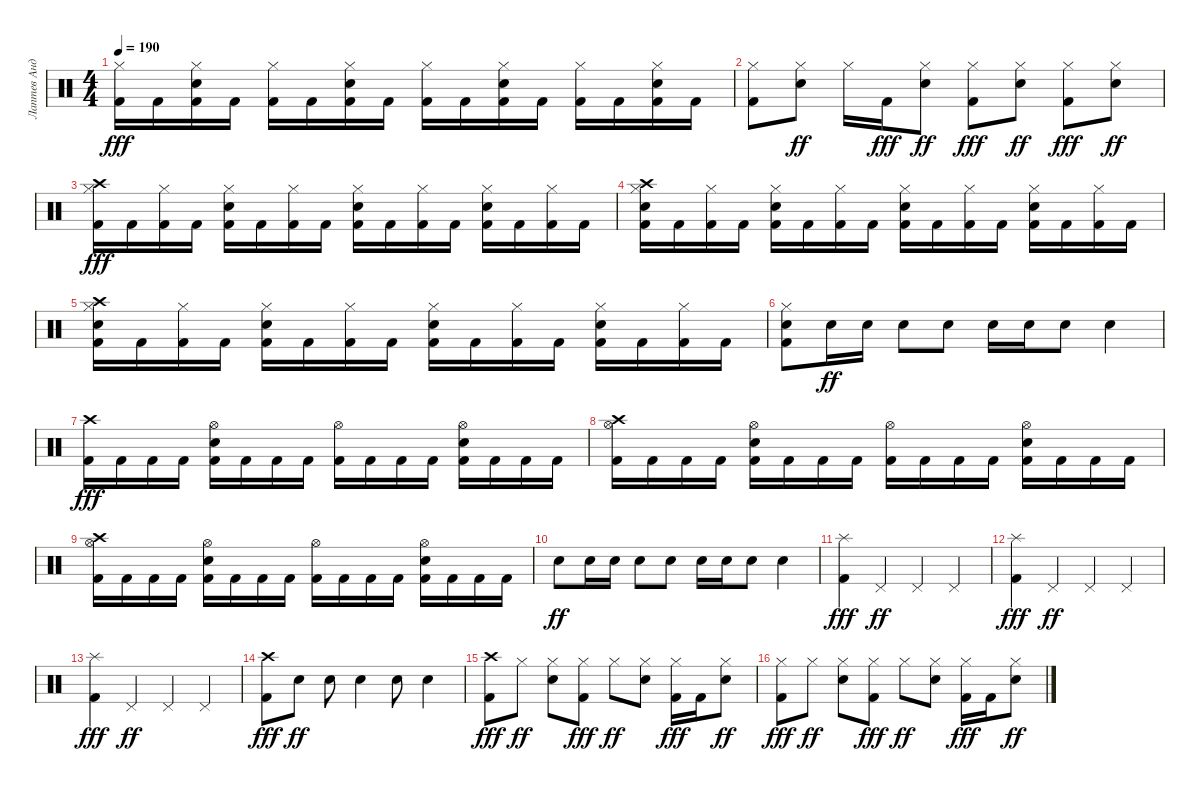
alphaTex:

\track ("Лаптев Андрей" "Лаптев Анд") {instrument percussion}
\staff {score}
\articulation defaults
\ts (4 4)
\tempo 190
\clef neutral
\ks c
("Hi-Hat (closed)" "Kick (hit) 2").16{dy fff} "Kick (hit) 2".16 ("Electric Snare (hit)" "Hi-Hat (closed)" "Kick (hit) 2").16 "Kick (hit) 2".16 ("Hi-Hat (closed)" "Kick (hit) 2").16 "Kick (hit) 2".16 ("Electric Snare (hit)" "Hi-Hat (closed)" "Kick (hit) 2").16 "Kick (hit) 2".16 ("Hi-Hat (closed)" "Kick (hit) 2").16 "Kick (hit) 2".16 ("Electric Snare (hit)" "Hi-Hat (closed)" "Kick (hit) 2").16 "Kick (hit) 2".16 ("Hi-Hat (closed)" "Kick (hit) 2").16 "Kick (hit) 2".16 ("Electric Snare (hit)" "Hi-Hat (closed)" "Kick (hit) 2").16 "Kick (hit) 2".16 |
("Hi-Hat (closed)" "Kick (hit) 2").8 ("Electric Snare (hit)" "Hi-Hat (closed)").8{dy ff} "Hi-Hat (closed)".16 "Kick (hit) 2".16{dy fff} ("Electric Snare (hit)" "Hi-Hat (closed)").8{dy ff} ("Hi-Hat (closed)" "Kick (hit) 2").8{dy fff} ("Electric Snare (hit)" "Hi-Hat (closed)").8{dy ff} ("Hi-Hat (closed)" "Kick (hit) 2").8{dy fff} ("Hi-Hat (closed)" "Electric Snare (hit)").8{dy ff} |
("Crash high (hit)" "Hi-Hat (closed)" "Kick (hit) 2").16{dy fff} "Kick (hit) 2".16 ("Hi-Hat (closed)" "Kick (hit) 2").16 "Kick (hit) 2".16 ("Electric Snare (hit)" "Hi-Hat (closed)" "Kick (hit) 2").16 "Kick (hit) 2".16 ("Hi-Hat (closed)" "Kick (hit) 2").16 "Kick (hit) 2".16 ("Electric Snare (hit)" "Hi-Hat (closed)" "Kick (hit) 2").16 "Kick (hit) 2".16 ("Hi-Hat (closed)" "Kick (hit) 2").16 "Kick (hit) 2".16 ("Electric Snare (hit)" "Hi-Hat (closed)" "Kick (hit) 2").16 "Kick (hit) 2".16 ("Hi-Hat (closed)" "Kick (hit) 2").16 "Kick (hit) 2".16 |
("Crash high (hit)" "Electric Snare (hit)" "Hi-Hat (closed)" "Kick (hit) 2").16 "Kick (hit) 2".16 ("Hi-Hat (closed)" "Kick (hit) 2").16 "Kick (hit) 2".16 ("Electric Snare (hit)" "Hi-Hat (closed)" "Kick (hit) 2").16 "Kick (hit) 2".16 ("Hi-Hat (closed)" "Kick (hit) 2").16 "Kick (hit) 2".16 ("Electric Snare (hit)" "Hi-Hat (closed)" "Kick (hit) 2").16 "Kick (hit) 2".16 ("Hi-Hat (closed)" "Kick (hit) 2").16 "Kick (hit) 2".16 ("Electric Snare (hit)" "Hi-Hat (closed)" "Kick (hit) 2").16 "Kick (hit) 2".16 ("Hi-Hat (closed)" "Kick (hit) 2").16 "Kick (hit) 2".16 |
("Crash high (hit)" "Hi-Hat (closed)" "Electric Snare (hit)" "Kick (hit) 2").16 "Kick (hit) 2".16 ("Hi-Hat (closed)" "Kick (hit) 2").16 "Kick (hit) 2".16 ("Electric Snare (hit)" "Hi-Hat (closed)" "Kick (hit) 2").16 "Kick (hit) 2".16 ("Hi-Hat (closed)" "Kick (hit) 2").16 "Kick (hit) 2".16 ("Electric Snare (hit)" "Hi-Hat (closed)" "Kick (hit) 2").16 "Kick (hit) 2".16 ("Hi-Hat (closed)" "Kick (hit) 2").16 "Kick (hit) 2".16 ("Electric Snare (hit)" "Hi-Hat (closed)" "Kick (hit) 2").16 "Kick (hit) 2".16 ("Hi-Hat (closed)" "Kick (hit) 2").16 "Kick (hit) 2".16 |
("Electric Snare (hit)" "Hi-Hat (closed)" "Kick (hit) 2").8 "Electric Snare (hit)".16{dy ff} "Electric Snare (hit)".16 "Electric Snare (hit)".8 "Electric Snare (hit)".8 "Electric Snare (hit)".16 "Electric Snare (hit)".16 "Electric Snare (hit)".8 "Electric Snare (hit)".4 |
("Crash high (hit)" "Kick (hit) 2").16{dy fff} "Kick (hit) 2".16 "Kick (hit) 2".16 "Kick (hit) 2".16 ("Hi-Hat (open)" "Electric Snare (hit)" "Kick (hit) 2").16 "Kick (hit) 2".16 "Kick (hit) 2".16 "Kick (hit) 2".16 ("Hi-Hat (open)" "Kick (hit) 2").16 "Kick (hit) 2".16 "Kick (hit) 2".16 "Kick (hit) 2".16 ("Hi-Hat (open)" "Electric Snare (hit)" "Kick (hit) 2").16 "Kick (hit) 2".16 "Kick (hit) 2".16 "Kick (hit) 2".16 |
("Crash high (hit)" "Hi-Hat (open)" "Kick (hit) 2").16 "Kick (hit) 2".16 "Kick (hit) 2".16 "Kick (hit) 2".16 ("Hi-Hat (open)" "Electric Snare (hit)" "Kick (hit) 2").16 "Kick (hit) 2".16 "Kick (hit) 2".16 "Kick (hit) 2".16 ("Hi-Hat (open)" "Kick (hit) 2").16 "Kick (hit) 2".16 "Kick (hit) 2".16 "Kick (hit) 2".16 ("Hi-Hat (open)" "Electric Snare (hit)" "Kick (hit) 2").16 "Kick (hit) 2".16 "Kick (hit) 2".16 "Kick (hit) 2".16 |
("Crash high (hit)" "Hi-Hat (open)" "Kick (hit) 2").16 "Kick (hit) 2".16 "Kick (hit) 2".16 "Kick (hit) 2".16 ("Electric Snare (hit)" "Hi-Hat (open)" "Kick (hit) 2").16 "Kick (hit) 2".16 "Kick (hit) 2".16 "Kick (hit) 2".16 ("Hi-Hat (open)" "Kick (hit) 2").16 "Kick (hit) 2".16 "Kick (hit) 2".16 "Kick (hit) 2".16 ("Electric Snare (hit)" "Hi-Hat (open)" "Kick (hit) 2").16 "Kick (hit) 2".16 "Kick (hit) 2".16 "Kick (hit) 2".16 |
"Electric Snare (hit)".8{dy ff} "Electric Snare (hit)".16 "Electric Snare (hit)".16 "Electric Snare (hit)".8 "Electric Snare (hit)".8 "Electric Snare (hit)".16 "Electric Snare (hit)".16 "Electric Snare (hit)".8 "Electric Snare (hit)".4 |
("Splash (hit)" "Kick (hit) 2").4{dy fff} "Pedal Hi-Hat (hit)".4{dy ff} "Pedal Hi-Hat (hit)".4 "Pedal Hi-Hat (hit)".4 |
("Splash (hit)" "Kick (hit) 2").4{dy fff} "Pedal Hi-Hat (hit)".4{dy ff} "Pedal Hi-Hat (hit)".4 "Pedal Hi-Hat (hit)".4 |
("Splash (hit)" "Kick (hit) 2").4{dy fff} "Pedal Hi-Hat (hit)".4{dy ff} "Pedal Hi-Hat (hit)".4 "Pedal Hi-Hat (hit)".4 |
("Crash high (hit)" "Kick (hit) 2").8{dy fff} "Electric Snare (hit)".8{dy ff} "Electric Snare (hit)".8 "Electric Snare (hit)".4 "Electric Snare (hit)".8 "Electric Snare (hit)".4 |
("Crash high (hit)" "Kick (hit) 2").8{dy fff} "Hi-Hat (closed)".8{dy ff} ("Electric Snare (hit)" "Hi-Hat (closed)").8 ("Hi-Hat (closed)" "Kick (hit) 2").8{dy fff} "Hi-Hat (closed)".8{dy ff} ("Hi-Hat (closed)" "Electric Snare (hit)").8 ("Hi-Hat (closed)" "Kick (hit) 2").16{dy fff} "Kick (hit) 2".16 ("Hi-Hat (closed)" "Electric Snare (hit)").8{dy ff} |
("Hi-Hat (closed)" "Kick (hit) 2").8{dy fff} "Hi-Hat (closed)".8{dy ff} ("Electric Snare (hit)" "Hi-Hat (closed)").8 ("Hi-Hat (closed)" "Kick (hit) 2").8{dy fff} "Hi-Hat (closed)".8{dy ff} ("Electric Snare (hit)" "Hi-Hat (closed)").8 ("Hi-Hat (closed)" "Kick (hit) 2").16{dy fff} "Kick (hit) 2".16 ("Hi-Hat (closed)" "Electric Snare (hit)").8{dy ff}
